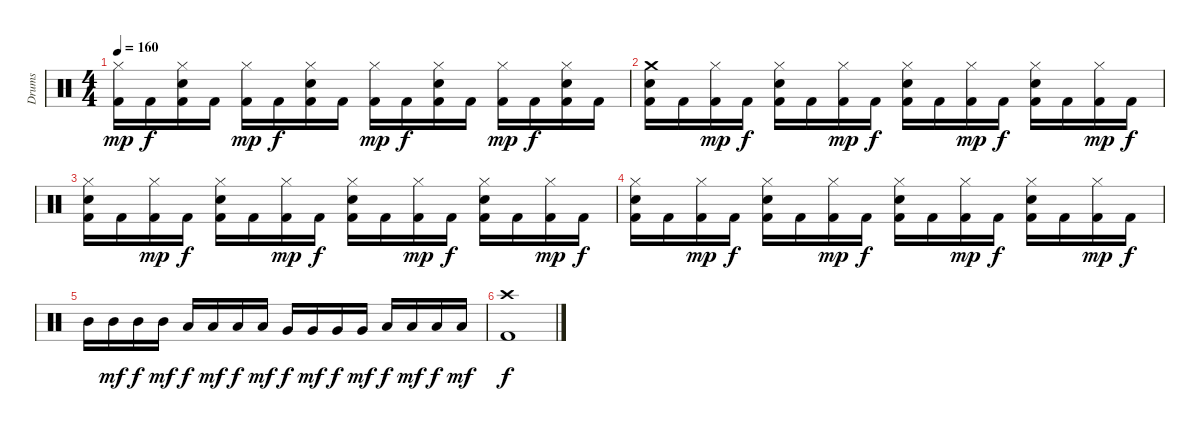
\track ("Drums" "Drums") {instrument percussion}
\staff {score}
\articulation defaults
\ts (4 4)
\tempo 160
\clef neutral
\ks c
("Kick (hit) 2" "Hi-Hat (closed)").16{dy mp} "Kick (hit) 2".16{dy f} ("Kick (hit) 2" "Hi-Hat (closed)" "Electric Snare (hit)").16 "Kick (hit) 2".16 ("Kick (hit) 2" "Hi-Hat (closed)").16{dy mp} "Kick (hit) 2".16{dy f} ("Kick (hit) 2" "Hi-Hat (closed)" "Electric Snare (hit)").16 "Kick (hit) 2".16 ("Kick (hit) 2" "Hi-Hat (closed)").16{dy mp} "Kick (hit) 2".16{dy f} ("Kick (hit) 2" "Hi-Hat (closed)" "Electric Snare (hit)").16 "Kick (hit) 2".16 ("Kick (hit) 2" "Hi-Hat (closed)").16{dy mp} "Kick (hit) 2".16{dy f} ("Kick (hit) 2" "Hi-Hat (closed)" "Electric Snare (hit)").16 "Kick (hit) 2".16 |
("Kick (hit) 2" "Crash medium (hit)" "Electric Snare (hit)").16 "Kick (hit) 2".16 ("Kick (hit) 2" "Hi-Hat (closed)").16{dy mp} "Kick (hit) 2".16{dy f} ("Kick (hit) 2" "Hi-Hat (closed)" "Electric Snare (hit)").16 "Kick (hit) 2".16 ("Kick (hit) 2" "Hi-Hat (closed)").16{dy mp} "Kick (hit) 2".16{dy f} ("Kick (hit) 2" "Hi-Hat (closed)" "Electric Snare (hit)").16 "Kick (hit) 2".16 ("Kick (hit) 2" "Hi-Hat (closed)").16{dy mp} "Kick (hit) 2".16{dy f} ("Kick (hit) 2" "Hi-Hat (closed)" "Electric Snare (hit)").16 "Kick (hit) 2".16 ("Kick (hit) 2" "Hi-Hat (closed)").16{dy mp} "Kick (hit) 2".16{dy f} |
("Kick (hit) 2" "Hi-Hat (closed)" "Electric Snare (hit)").16 "Kick (hit) 2".16 ("Kick (hit) 2" "Hi-Hat (closed)").16{dy mp} "Kick (hit) 2".16{dy f} ("Kick (hit) 2" "Hi-Hat (closed)" "Electric Snare (hit)").16 "Kick (hit) 2".16 ("Kick (hit) 2" "Hi-Hat (closed)").16{dy mp} "Kick (hit) 2".16{dy f} ("Kick (hit) 2" "Hi-Hat (closed)" "Electric Snare (hit)").16 "Kick (hit) 2".16 ("Kick (hit) 2" "Hi-Hat (closed)").16{dy mp} "Kick (hit) 2".16{dy f} ("Kick (hit) 2" "Hi-Hat (closed)" "Electric Snare (hit)").16 "Kick (hit) 2".16 ("Kick (hit) 2" "Hi-Hat (closed)").16{dy mp} "Kick (hit) 2".16{dy f} |
("Kick (hit) 2" "Hi-Hat (closed)" "Electric Snare (hit)").16 "Kick (hit) 2".16 ("Kick (hit) 2" "Hi-Hat (closed)").16{dy mp} "Kick (hit) 2".16{dy f} ("Kick (hit) 2" "Hi-Hat (closed)" "Electric Snare (hit)").16 "Kick (hit) 2".16 ("Kick (hit) 2" "Hi-Hat (closed)").16{dy mp} "Kick (hit) 2".16{dy f} ("Kick (hit) 2" "Hi-Hat (closed)" "Electric Snare (hit)").16 "Kick (hit) 2".16 ("Kick (hit) 2" "Hi-Hat (closed)").16{dy mp} "Kick (hit) 2".16{dy f} ("Kick (hit) 2" "Hi-Hat (closed)" "Electric Snare (hit)").16 "Kick (hit) 2".16 ("Kick (hit) 2" "Hi-Hat (closed)").16{dy mp} "Kick (hit) 2".16{dy f} |
"Mid Tom (hit)".16 "Mid Tom (hit)".16{dy mf} "Mid Tom (hit)".16{dy f} "Mid Tom (hit)".16{dy mf} "Low Tom (hit)".16{dy f} "Low Tom (hit)".16{dy mf} "Low Tom (hit)".16{dy f} "Low Tom (hit)".16{dy mf} "Very Low Tom (hit)".16{dy f} "Very Low Tom (hit)".16{dy mf} "Very Low Tom (hit)".16{dy f} "Very Low Tom (hit)".16{dy mf} "Low Floor Tom (hit)".16{dy f} "Low Floor Tom (hit)".16{dy mf} "Low Floor Tom (hit)".16{dy f} "Low Floor Tom (hit)".16{dy mf} |
("Kick (hit) 2" "Crash high (hit)").1{dy f}
